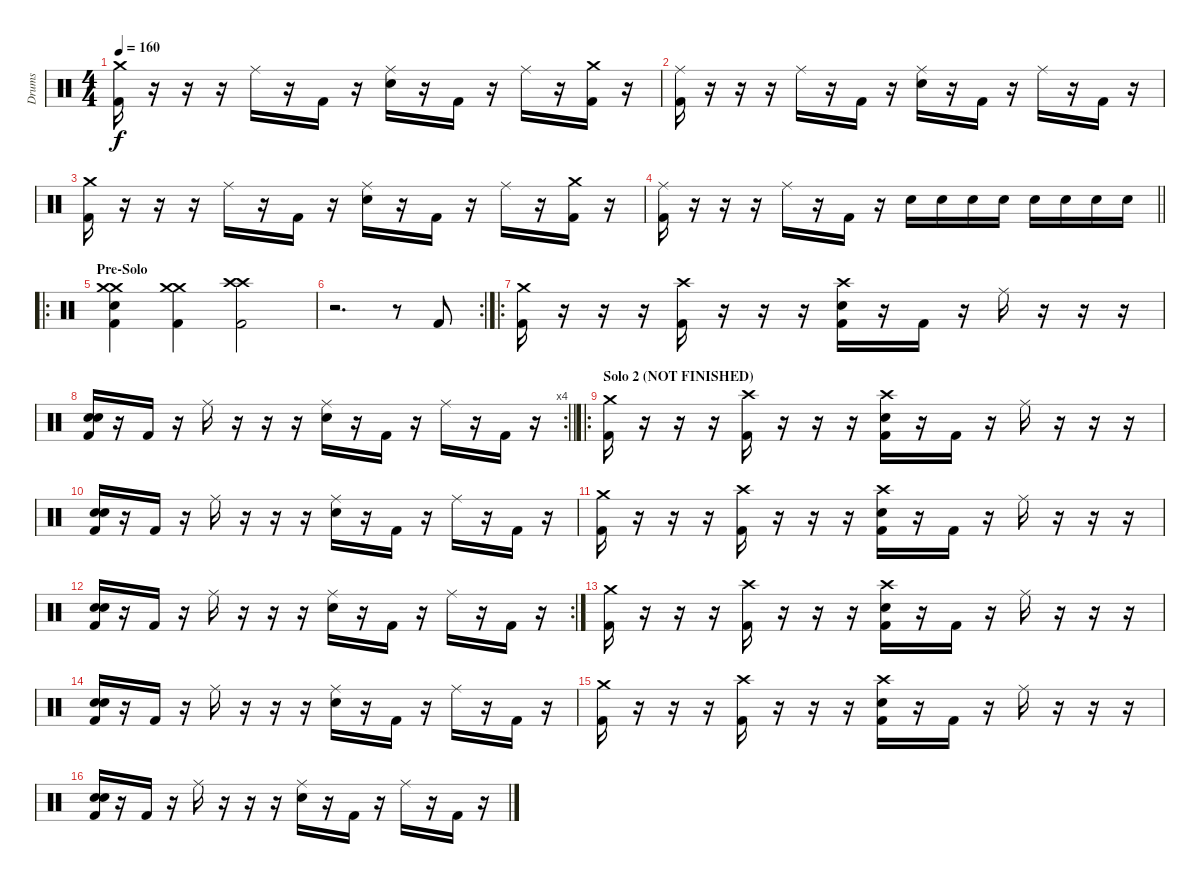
\track ("Drums" "Drums") {instrument percussion}
\staff {score}
\articulation defaults
\ts (4 4)
\tempo 160
\clef neutral
\ks c
("Crash medium (hit)" "Kick (hit) 2").16{dy f} r.16 r.16 r.16 "Ride (middle)".16 r.16 "Kick (hit) 2".16 r.16 ("Ride (middle)" "Electric Snare (hit)").16 r.16 "Kick (hit) 2".16 r.16 "Ride (middle)".16 r.16 ("Crash medium (hit)" "Kick (hit) 2").16 r.16 |
("Ride (middle)" "Kick (hit) 2").16 r.16 r.16 r.16 "Ride (middle)".16 r.16 "Kick (hit) 2".16 r.16 ("Ride (middle)" "Electric Snare (hit)").16 r.16 "Kick (hit) 2".16 r.16 "Ride (middle)".16 r.16 "Kick (hit) 2".16 r.16 |
("Crash medium (hit)" "Kick (hit) 2").16 r.16 r.16 r.16 "Ride (middle)".16 r.16 "Kick (hit) 2".16 r.16 ("Ride (middle)" "Electric Snare (hit)").16 r.16 "Kick (hit) 2".16 r.16 "Ride (middle)".16 r.16 ("Crash medium (hit)" "Kick (hit) 2").16 r.16 |
\barLineRight lightlight
("Ride (middle)" "Kick (hit) 2").16 r.16 r.16 r.16 "Ride (middle)".16 r.16 "Kick (hit) 2".16 r.16 "Electric Snare (hit)".16 "Electric Snare (hit)".16 "Electric Snare (hit)".16 "Electric Snare (hit)".16 "Electric Snare (hit)".16 "Electric Snare (hit)".16 "Electric Snare (hit)".16 "Electric Snare (hit)".16 |
\ro
\section ("" "Pre-Solo")
("Crash medium (hit)" "Crash medium (hit)" "Electric Snare (hit)" "Kick (hit) 2").4 ("Crash medium (hit)" "Crash medium (hit)" "Kick (hit) 2").4 ("Crash high (hit)" "Crash high (hit)" "Kick (hit) 2").2 |
\rc 2
r.2{d} r.8 "Kick (hit) 2".8 |
\ro
("Crash medium (hit)" "Kick (hit) 2").16 r.16 r.16 r.16 ("Crash high (hit)" "Kick (hit) 2").16 r.16 r.16 r.16 ("Crash high (hit)" "Electric Snare (hit)" "Kick (hit) 2").16 r.16 "Kick (hit) 2".16 r.16 "Ride (middle)".16 r.16 r.16 r.16 |
\rc 4
\barLineRight lightlight
("Electric Snare (hit)" "Electric Snare (hit)" "Kick (hit) 2").16 r.16 "Kick (hit) 2".16 r.16 "Ride (middle)".16 r.16 r.16 r.16 ("Ride (middle)" "Electric Snare (hit)").16 r.16 "Kick (hit) 2".16 r.16 "Ride (middle)".16 r.16 "Kick (hit) 2".16 r.16 |
\ro
\section ("" "Solo 2 (NOT FINISHED)")
("Crash medium (hit)" "Kick (hit) 2").16 r.16 r.16 r.16 ("Crash high (hit)" "Kick (hit) 2").16 r.16 r.16 r.16 ("Crash high (hit)" "Electric Snare (hit)" "Kick (hit) 2").16 r.16 "Kick (hit) 2".16 r.16 "Ride (middle)".16 r.16 r.16 r.16 |
("Electric Snare (hit)" "Electric Snare (hit)" "Kick (hit) 2").16 r.16 "Kick (hit) 2".16 r.16 "Ride (middle)".16 r.16 r.16 r.16 ("Ride (middle)" "Electric Snare (hit)").16 r.16 "Kick (hit) 2".16 r.16 "Ride (middle)".16 r.16 "Kick (hit) 2".16 r.16 |
("Crash medium (hit)" "Kick (hit) 2").16 r.16 r.16 r.16 ("Crash high (hit)" "Kick (hit) 2").16 r.16 r.16 r.16 ("Crash high (hit)" "Electric Snare (hit)" "Kick (hit) 2").16 r.16 "Kick (hit) 2".16 r.16 "Ride (middle)".16 r.16 r.16 r.16 |
\rc 2
("Electric Snare (hit)" "Electric Snare (hit)" "Kick (hit) 2").16 r.16 "Kick (hit) 2".16 r.16 "Ride (middle)".16 r.16 r.16 r.16 ("Ride (middle)" "Electric Snare (hit)").16 r.16 "Kick (hit) 2".16 r.16 "Ride (middle)".16 r.16 "Kick (hit) 2".16 r.16 |
("Crash medium (hit)" "Kick (hit) 2").16 r.16 r.16 r.16 ("Crash high (hit)" "Kick (hit) 2").16 r.16 r.16 r.16 ("Crash high (hit)" "Electric Snare (hit)" "Kick (hit) 2").16 r.16 "Kick (hit) 2".16 r.16 "Ride (middle)".16 r.16 r.16 r.16 |
("Electric Snare (hit)" "Electric Snare (hit)" "Kick (hit) 2").16 r.16 "Kick (hit) 2".16 r.16 "Ride (middle)".16 r.16 r.16 r.16 ("Ride (middle)" "Electric Snare (hit)").16 r.16 "Kick (hit) 2".16 r.16 "Ride (middle)".16 r.16 "Kick (hit) 2".16 r.16 |
("Crash medium (hit)" "Kick (hit) 2").16 r.16 r.16 r.16 ("Crash high (hit)" "Kick (hit) 2").16 r.16 r.16 r.16 ("Crash high (hit)" "Electric Snare (hit)" "Kick (hit) 2").16 r.16 "Kick (hit) 2".16 r.16 "Ride (middle)".16 r.16 r.16 r.16 |
("Electric Snare (hit)" "Electric Snare (hit)" "Kick (hit) 2").16 r.16 "Kick (hit) 2".16 r.16 "Ride (middle)".16 r.16 r.16 r.16 ("Ride (middle)" "Electric Snare (hit)").16 r.16 "Kick (hit) 2".16 r.16 "Ride (middle)".16 r.16 "Kick (hit) 2".16 r.16
